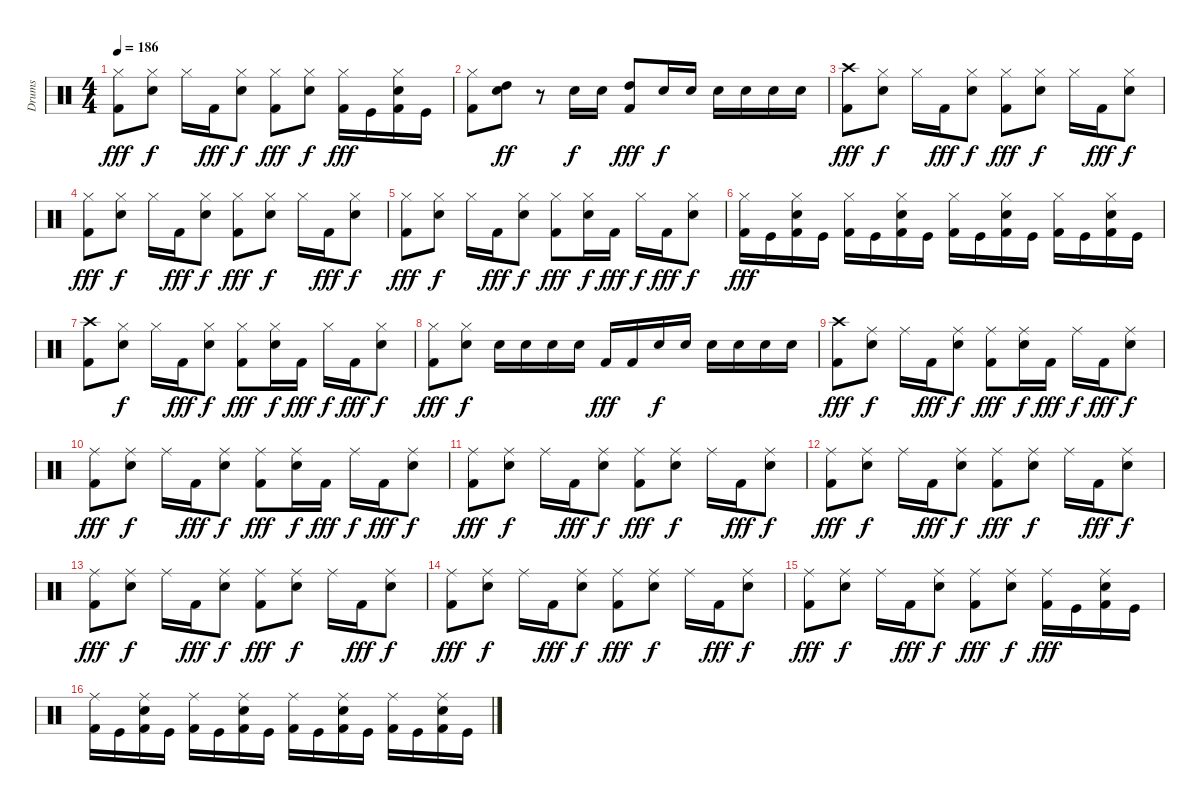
\track ("Drums" "Drums") {instrument percussion}
\staff {score}
\articulation defaults
\ts (4 4)
\tempo 186
\clef neutral
\ks c
("Hi-Hat (closed)" "Kick (hit) 2").8{dy fff} ("Hi-Hat (closed)" "Electric Snare (hit)").8{dy f} "Hi-Hat (closed)".16 "Kick (hit) 2".16{dy fff} ("Hi-Hat (closed)" "Electric Snare (hit)").8{dy f} ("Hi-Hat (closed)" "Kick (hit) 2").8{dy fff} ("Hi-Hat (closed)" "Electric Snare (hit)").8{dy f} ("Hi-Hat (closed)" "Kick (hit) 2").16{dy fff} "Kick (hit)".16 ("Hi-Hat (closed)" "Electric Snare (hit)" "Kick (hit) 2").16 "Kick (hit)".16 |
("Hi-Hat (closed)" "Kick (hit) 2").8 ("High Tom (hit)" "Electric Snare (hit)").8{dy ff} r.8 "Electric Snare (hit)".16{dy f} "Electric Snare (hit)".16 ("High Tom (hit)" "Kick (hit) 2").8{dy fff} "Electric Snare (hit)".16{dy f} "Electric Snare (hit)".16 "Electric Snare (hit)".16 "Electric Snare (hit)".16 "Electric Snare (hit)".16 "Electric Snare (hit)".16 |
("Crash high (hit)" "Kick (hit) 2").8{dy fff} ("Hi-Hat (closed)" "Electric Snare (hit)").8{dy f} "Hi-Hat (closed)".16 "Kick (hit) 2".16{dy fff} ("Hi-Hat (closed)" "Electric Snare (hit)").8{dy f} ("Hi-Hat (closed)" "Kick (hit) 2").8{dy fff} ("Hi-Hat (closed)" "Electric Snare (hit)").8{dy f} "Hi-Hat (closed)".16 "Kick (hit) 2".16{dy fff} ("Hi-Hat (closed)" "Electric Snare (hit)").8{dy f} |
("Hi-Hat (closed)" "Kick (hit) 2").8{dy fff} ("Hi-Hat (closed)" "Electric Snare (hit)").8{dy f} "Hi-Hat (closed)".16 "Kick (hit) 2".16{dy fff} ("Hi-Hat (closed)" "Electric Snare (hit)").8{dy f} ("Hi-Hat (closed)" "Kick (hit) 2").8{dy fff} ("Hi-Hat (closed)" "Electric Snare (hit)").8{dy f} "Hi-Hat (closed)".16 "Kick (hit) 2".16{dy fff} ("Hi-Hat (closed)" "Electric Snare (hit)").8{dy f} |
("Hi-Hat (closed)" "Kick (hit) 2").8{dy fff} ("Hi-Hat (closed)" "Electric Snare (hit)").8{dy f} "Hi-Hat (closed)".16 "Kick (hit) 2".16{dy fff} ("Hi-Hat (closed)" "Electric Snare (hit)").8{dy f} ("Hi-Hat (closed)" "Kick (hit) 2").8{dy fff} ("Hi-Hat (closed)" "Electric Snare (hit)").16{dy f} "Kick (hit) 2".16{dy fff} "Hi-Hat (closed)".16{dy f} "Kick (hit) 2".16{dy fff} ("Hi-Hat (closed)" "Electric Snare (hit)").8{dy f} |
("Hi-Hat (closed)" "Kick (hit) 2").16{dy fff} "Kick (hit)".16 ("Hi-Hat (closed)" "Electric Snare (hit)" "Kick (hit) 2").16 "Kick (hit)".16 ("Hi-Hat (closed)" "Kick (hit) 2").16 "Kick (hit)".16 ("Hi-Hat (closed)" "Electric Snare (hit)" "Kick (hit) 2").16 "Kick (hit)".16 ("Hi-Hat (closed)" "Kick (hit) 2").16 "Kick (hit)".16 ("Hi-Hat (closed)" "Electric Snare (hit)" "Kick (hit) 2").16 "Kick (hit)".16 ("Hi-Hat (closed)" "Kick (hit) 2").16 "Kick (hit)".16 ("Hi-Hat (closed)" "Electric Snare (hit)" "Kick (hit) 2").16 "Kick (hit)".16 |
("Crash high (hit)" "Kick (hit) 2").8 ("Hi-Hat (closed)" "Electric Snare (hit)").8{dy f} "Hi-Hat (closed)".16 "Kick (hit) 2".16{dy fff} ("Hi-Hat (closed)" "Electric Snare (hit)").8{dy f} ("Hi-Hat (closed)" "Kick (hit) 2").8{dy fff} ("Hi-Hat (closed)" "Electric Snare (hit)").16{dy f} "Kick (hit) 2".16{dy fff} "Hi-Hat (closed)".16{dy f} "Kick (hit) 2".16{dy fff} ("Hi-Hat (closed)" "Electric Snare (hit)").8{dy f} |
("Hi-Hat (closed)" "Kick (hit) 2").8{dy fff} ("Hi-Hat (closed)" "Electric Snare (hit)").8{dy f} "Electric Snare (hit)".16 "Electric Snare (hit)".16 "Electric Snare (hit)".16 "Electric Snare (hit)".16 "Kick (hit) 2".16{dy fff} "Kick (hit) 2".16 "Electric Snare (hit)".16{dy f} "Electric Snare (hit)".16 "Electric Snare (hit)".16 "Electric Snare (hit)".16 "Electric Snare (hit)".16 "Electric Snare (hit)".16 |
("Crash high (hit)" "Kick (hit) 2").8{dy fff} ("Ride (middle)" "Electric Snare (hit)").8{dy f} "Ride (middle)".16 "Kick (hit) 2".16{dy fff} ("Ride (middle)" "Electric Snare (hit)").8{dy f} ("Ride (middle)" "Kick (hit) 2").8{dy fff} ("Ride (middle)" "Electric Snare (hit)").16{dy f} "Kick (hit) 2".16{dy fff} "Ride (middle)".16{dy f} "Kick (hit) 2".16{dy fff} ("Ride (middle)" "Electric Snare (hit)").8{dy f} |
("Ride (middle)" "Kick (hit) 2").8{dy fff} ("Ride (middle)" "Electric Snare (hit)").8{dy f} "Ride (middle)".16 "Kick (hit) 2".16{dy fff} ("Ride (middle)" "Electric Snare (hit)").8{dy f} ("Ride (middle)" "Kick (hit) 2").8{dy fff} ("Ride (middle)" "Electric Snare (hit)").16{dy f} "Kick (hit) 2".16{dy fff} "Ride (middle)".16{dy f} "Kick (hit) 2".16{dy fff} ("Ride (middle)" "Electric Snare (hit)").8{dy f} |
("Ride (middle)" "Kick (hit) 2").8{dy fff} ("Ride (middle)" "Electric Snare (hit)").8{dy f} "Ride (middle)".16 "Kick (hit) 2".16{dy fff} ("Ride (middle)" "Electric Snare (hit)").8{dy f} ("Ride (middle)" "Kick (hit) 2").8{dy fff} ("Ride (middle)" "Electric Snare (hit)").8{dy f} "Ride (middle)".16 "Kick (hit) 2".16{dy fff} ("Ride (middle)" "Electric Snare (hit)").8{dy f} |
("Ride (middle)" "Kick (hit) 2").8{dy fff} ("Ride (middle)" "Electric Snare (hit)").8{dy f} "Ride (middle)".16 "Kick (hit) 2".16{dy fff} ("Ride (middle)" "Electric Snare (hit)").8{dy f} ("Ride (middle)" "Kick (hit) 2").8{dy fff} ("Ride (middle)" "Electric Snare (hit)").8{dy f} "Ride (middle)".16 "Kick (hit) 2".16{dy fff} ("Ride (middle)" "Electric Snare (hit)").8{dy f} |
("Ride (middle)" "Kick (hit) 2").8{dy fff} ("Ride (middle)" "Electric Snare (hit)").8{dy f} "Ride (middle)".16 "Kick (hit) 2".16{dy fff} ("Ride (middle)" "Electric Snare (hit)").8{dy f} ("Ride (middle)" "Kick (hit) 2").8{dy fff} ("Ride (middle)" "Electric Snare (hit)").8{dy f} "Ride (middle)".16 "Kick (hit) 2".16{dy fff} ("Ride (middle)" "Electric Snare (hit)").8{dy f} |
("Ride (middle)" "Kick (hit) 2").8{dy fff} ("Ride (middle)" "Electric Snare (hit)").8{dy f} "Ride (middle)".16 "Kick (hit) 2".16{dy fff} ("Ride (middle)" "Electric Snare (hit)").8{dy f} ("Ride (middle)" "Kick (hit) 2").8{dy fff} ("Ride (middle)" "Electric Snare (hit)").8{dy f} "Ride (middle)".16 "Kick (hit) 2".16{dy fff} ("Ride (middle)" "Electric Snare (hit)").8{dy f} |
("Ride (middle)" "Kick (hit) 2").8{dy fff} ("Ride (middle)" "Electric Snare (hit)").8{dy f} "Ride (middle)".16 "Kick (hit) 2".16{dy fff} ("Ride (middle)" "Electric Snare (hit)").8{dy f} ("Ride (middle)" "Kick (hit) 2").8{dy fff} ("Ride (middle)" "Electric Snare (hit)").8{dy f} ("Ride (middle)" "Kick (hit) 2").16{dy fff} "Kick (hit)".16 ("Ride (middle)" "Electric Snare (hit)" "Kick (hit) 2").16 "Kick (hit)".16 |
("Ride (middle)" "Kick (hit) 2").16 "Kick (hit)".16 ("Ride (middle)" "Electric Snare (hit)" "Kick (hit) 2").16 "Kick (hit)".16 ("Ride (middle)" "Kick (hit) 2").16 "Kick (hit)".16 ("Ride (middle)" "Electric Snare (hit)" "Kick (hit) 2").16 "Kick (hit)".16 ("Ride (middle)" "Kick (hit) 2").16 "Kick (hit)".16 ("Ride (middle)" "Electric Snare (hit)" "Kick (hit) 2").16 "Kick (hit)".16 ("Ride (middle)" "Kick (hit) 2").16 "Kick (hit)".16 ("Ride (middle)" "Electric Snare (hit)" "Kick (hit) 2").16 "Kick (hit)".16
